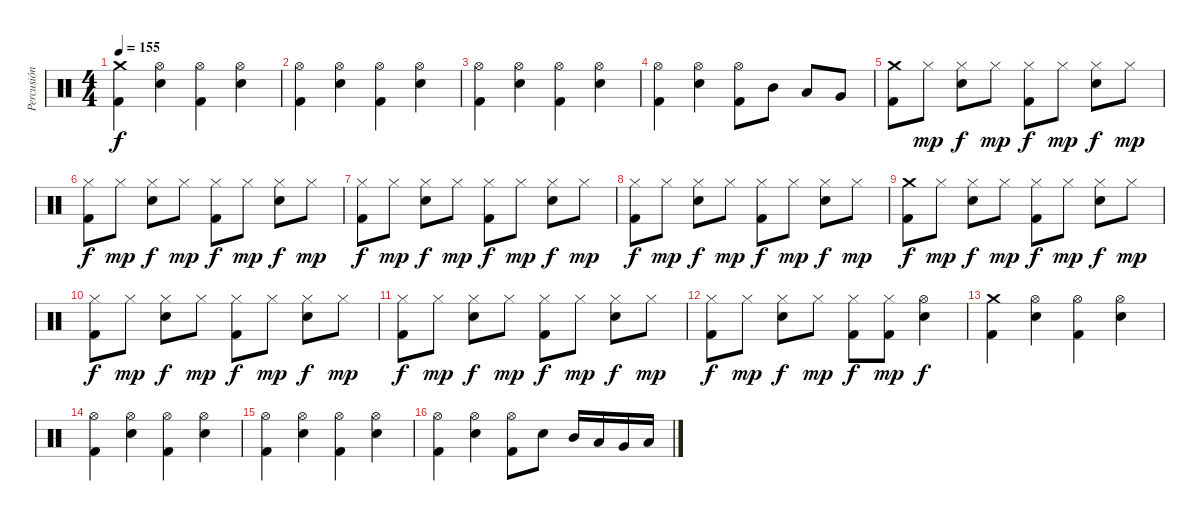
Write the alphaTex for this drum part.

\track ("Percusión" "Percusión") {instrument percussion}
\staff {score}
\articulation defaults
\ts (4 4)
\tempo 155
\clef neutral
\ks c
("Crash medium (hit)" "Kick (hit) 2").4{dy f} ("Hi-Hat (open)" "Electric Snare (hit)").4 ("Hi-Hat (open)" "Kick (hit) 2").4 ("Hi-Hat (open)" "Electric Snare (hit)").4 |
("Hi-Hat (open)" "Kick (hit) 2").4 ("Hi-Hat (open)" "Electric Snare (hit)").4 ("Hi-Hat (open)" "Kick (hit) 2").4 ("Hi-Hat (open)" "Electric Snare (hit)").4 |
("Hi-Hat (open)" "Kick (hit) 2").4 ("Hi-Hat (open)" "Electric Snare (hit)").4 ("Hi-Hat (open)" "Kick (hit) 2").4 ("Hi-Hat (open)" "Electric Snare (hit)").4 |
("Hi-Hat (open)" "Kick (hit) 2").4 ("Hi-Hat (open)" "Electric Snare (hit)").4 ("Hi-Hat (open)" "Kick (hit) 2").8 "Mid Tom (hit)".8 "Low Tom (hit)".8 "Very Low Tom (hit)".8 |
("Crash medium (hit)" "Kick (hit) 2").8 "Hi-Hat (closed)".8{dy mp} ("Hi-Hat (closed)" "Electric Snare (hit)").8{dy f} "Hi-Hat (closed)".8{dy mp} ("Hi-Hat (closed)" "Kick (hit) 2").8{dy f} "Hi-Hat (closed)".8{dy mp} ("Hi-Hat (closed)" "Electric Snare (hit)").8{dy f} "Hi-Hat (closed)".8{dy mp} |
("Hi-Hat (closed)" "Kick (hit) 2").8{dy f} "Hi-Hat (closed)".8{dy mp} ("Hi-Hat (closed)" "Electric Snare (hit)").8{dy f} "Hi-Hat (closed)".8{dy mp} ("Hi-Hat (closed)" "Kick (hit) 2").8{dy f} "Hi-Hat (closed)".8{dy mp} ("Hi-Hat (closed)" "Electric Snare (hit)").8{dy f} "Hi-Hat (closed)".8{dy mp} |
("Hi-Hat (closed)" "Kick (hit) 2").8{dy f} "Hi-Hat (closed)".8{dy mp} ("Hi-Hat (closed)" "Electric Snare (hit)").8{dy f} "Hi-Hat (closed)".8{dy mp} ("Hi-Hat (closed)" "Kick (hit) 2").8{dy f} "Hi-Hat (closed)".8{dy mp} ("Hi-Hat (closed)" "Electric Snare (hit)").8{dy f} "Hi-Hat (closed)".8{dy mp} |
("Hi-Hat (closed)" "Kick (hit) 2").8{dy f} "Hi-Hat (closed)".8{dy mp} ("Hi-Hat (closed)" "Electric Snare (hit)").8{dy f} "Hi-Hat (closed)".8{dy mp} ("Hi-Hat (closed)" "Kick (hit) 2").8{dy f} "Hi-Hat (closed)".8{dy mp} ("Hi-Hat (closed)" "Electric Snare (hit)").8{dy f} "Hi-Hat (closed)".8{dy mp} |
("Crash medium (hit)" "Kick (hit) 2").8{dy f} "Hi-Hat (closed)".8{dy mp} ("Hi-Hat (closed)" "Electric Snare (hit)").8{dy f} "Hi-Hat (closed)".8{dy mp} ("Hi-Hat (closed)" "Kick (hit) 2").8{dy f} "Hi-Hat (closed)".8{dy mp} ("Hi-Hat (closed)" "Electric Snare (hit)").8{dy f} "Hi-Hat (closed)".8{dy mp} |
("Hi-Hat (closed)" "Kick (hit) 2").8{dy f} "Hi-Hat (closed)".8{dy mp} ("Hi-Hat (closed)" "Electric Snare (hit)").8{dy f} "Hi-Hat (closed)".8{dy mp} ("Hi-Hat (closed)" "Kick (hit) 2").8{dy f} "Hi-Hat (closed)".8{dy mp} ("Hi-Hat (closed)" "Electric Snare (hit)").8{dy f} "Hi-Hat (closed)".8{dy mp} |
("Hi-Hat (closed)" "Kick (hit) 2").8{dy f} "Hi-Hat (closed)".8{dy mp} ("Hi-Hat (closed)" "Electric Snare (hit)").8{dy f} "Hi-Hat (closed)".8{dy mp} ("Hi-Hat (closed)" "Kick (hit) 2").8{dy f} "Hi-Hat (closed)".8{dy mp} ("Hi-Hat (closed)" "Electric Snare (hit)").8{dy f} "Hi-Hat (closed)".8{dy mp} |
("Hi-Hat (closed)" "Kick (hit) 2").8{dy f} "Hi-Hat (closed)".8{dy mp} ("Hi-Hat (closed)" "Electric Snare (hit)").8{dy f} "Hi-Hat (closed)".8{dy mp} ("Hi-Hat (closed)" "Kick (hit) 2").8{dy f} ("Hi-Hat (closed)" "Kick (hit) 2").8{dy mp} ("Hi-Hat (open)" "Electric Snare (hit)").4{dy f} |
("Crash medium (hit)" "Kick (hit) 2").4 ("Hi-Hat (open)" "Electric Snare (hit)").4 ("Hi-Hat (open)" "Kick (hit) 2").4 ("Hi-Hat (open)" "Electric Snare (hit)").4 |
("Hi-Hat (open)" "Kick (hit) 2").4 ("Hi-Hat (open)" "Electric Snare (hit)").4 ("Hi-Hat (open)" "Kick (hit) 2").4 ("Hi-Hat (open)" "Electric Snare (hit)").4 |
("Hi-Hat (open)" "Kick (hit) 2").4 ("Hi-Hat (open)" "Electric Snare (hit)").4 ("Hi-Hat (open)" "Kick (hit) 2").4 ("Hi-Hat (open)" "Electric Snare (hit)").4 |
("Hi-Hat (open)" "Kick (hit) 2").4 ("Hi-Hat (open)" "Electric Snare (hit)").4 ("Hi-Hat (open)" "Kick (hit) 2").8 "Electric Snare (hit)".8 "Mid Tom (hit)".16 "Low Tom (hit)".16 "Very Low Tom (hit)".16 "Low Floor Tom (hit)".16
